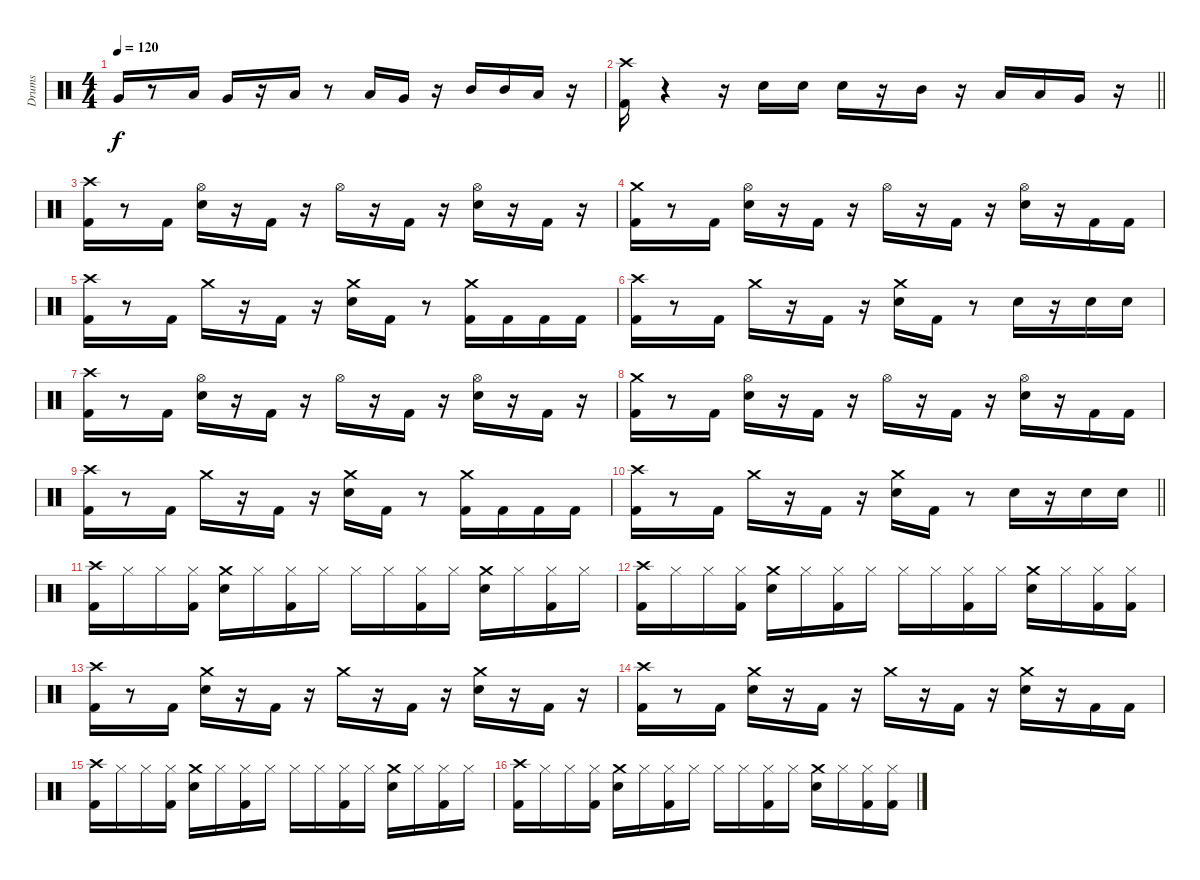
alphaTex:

\track ("Drums" "Drums") {instrument percussion}
\staff {score}
\articulation defaults
\ts (4 4)
\tempo 120
\clef neutral
\ks c "Very Low Tom (hit)".16{dy f}
r.8 "Low Tom (hit)".16 "Very Low Tom (hit)".16 r.16 "Low Tom (hit)".16 r.8 "Low Tom (hit)".16 "Very Low Tom (hit)".16 r.16 "Mid Tom (hit)".16 "Mid Tom (hit)".16 "Low Tom (hit)".16 r.16 |
\barLineRight lightlight
("Kick (hit) 2" "Crash high (hit)").16 r.4 r.16 "Snare (hit) 2".16 "Snare (hit) 2".16 "Snare (hit) 2".16 r.16 "Mid Tom (hit)".16 r.16 "Low Tom (hit)".16 "Low Tom (hit)".16 "Very Low Tom (hit)".16 r.16 |
\section ("" " ")
("Kick (hit) 2" "Crash high (hit)").16 r.8 "Kick (hit) 2".16 ("Snare (hit) 2" "Hi-Hat (open)").16 r.16 "Kick (hit) 2".16 r.16 "Hi-Hat (open)".16 r.16 "Kick (hit) 2".16 r.16 ("Snare (hit) 2" "Hi-Hat (open)").16 r.16 "Kick (hit) 2".16 r.16 |
("Kick (hit) 2" "Crash medium (hit)").16 r.8 "Kick (hit) 2".16 ("Snare (hit) 2" "Hi-Hat (open)").16 r.16 "Kick (hit) 2".16 r.16 "Hi-Hat (open)".16 r.16 "Kick (hit) 2".16 r.16 ("Snare (hit) 2" "Hi-Hat (open)").16 r.16 "Kick (hit) 2".16 "Kick (hit) 2".16 |
("Kick (hit) 2" "Crash high (hit)").16 r.8 "Kick (hit) 2".16 "Crash medium (hit)".16 r.16 "Kick (hit) 2".16 r.16 ("Snare (hit) 2" "Crash medium (hit)").16 "Kick (hit) 2".16 r.8 ("Kick (hit) 2" "Crash medium (hit)").16 "Kick (hit) 2".16 "Kick (hit) 2".16 "Kick (hit) 2".16 |
("Kick (hit) 2" "Crash high (hit)").16 r.8 "Kick (hit) 2".16 "Crash medium (hit)".16 r.16 "Kick (hit) 2".16 r.16 ("Snare (hit) 2" "Crash medium (hit)").16 "Kick (hit) 2".16 r.8 "Snare (hit) 2".16 r.16 "Snare (hit) 2".16 "Snare (hit) 2".16 |
("Kick (hit) 2" "Crash high (hit)").16 r.8 "Kick (hit) 2".16 ("Snare (hit) 2" "Hi-Hat (open)").16 r.16 "Kick (hit) 2".16 r.16 "Hi-Hat (open)".16 r.16 "Kick (hit) 2".16 r.16 ("Snare (hit) 2" "Hi-Hat (open)").16 r.16 "Kick (hit) 2".16 r.16 |
("Kick (hit) 2" "Crash medium (hit)").16 r.8 "Kick (hit) 2".16 ("Snare (hit) 2" "Hi-Hat (open)").16 r.16 "Kick (hit) 2".16 r.16 "Hi-Hat (open)".16 r.16 "Kick (hit) 2".16 r.16 ("Snare (hit) 2" "Hi-Hat (open)").16 r.16 "Kick (hit) 2".16 "Kick (hit) 2".16 |
("Kick (hit) 2" "Crash high (hit)").16 r.8 "Kick (hit) 2".16 "Crash medium (hit)".16 r.16 "Kick (hit) 2".16 r.16 ("Snare (hit) 2" "Crash medium (hit)").16 "Kick (hit) 2".16 r.8 ("Kick (hit) 2" "Crash medium (hit)").16 "Kick (hit) 2".16 "Kick (hit) 2".16 "Kick (hit) 2".16 |
\barLineRight lightlight
("Kick (hit) 2" "Crash high (hit)").16 r.8 "Kick (hit) 2".16 "Crash medium (hit)".16 r.16 "Kick (hit) 2".16 r.16 ("Snare (hit) 2" "Crash medium (hit)").16 "Kick (hit) 2".16 r.8 "Snare (hit) 2".16 r.16 "Snare (hit) 2".16 "Snare (hit) 2".16 |
\section ("" " ")
("Kick (hit) 2" "Crash high (hit)").16 "Hi-Hat (closed)".16 "Hi-Hat (closed)".16 ("Kick (hit) 2" "Hi-Hat (closed)").16 ("Snare (hit) 2" "Crash medium (hit)").16 "Hi-Hat (closed)".16 ("Kick (hit) 2" "Hi-Hat (closed)").16 "Hi-Hat (closed)".16 "Hi-Hat (closed)".16 "Hi-Hat (closed)".16 ("Kick (hit) 2" "Hi-Hat (closed)").16 "Hi-Hat (closed)".16 ("Snare (hit) 2" "Crash medium (hit)").16 "Hi-Hat (closed)".16 ("Kick (hit) 2" "Hi-Hat (closed)").16 "Hi-Hat (closed)".16 |
("Kick (hit) 2" "Crash high (hit)").16 "Hi-Hat (closed)".16 "Hi-Hat (closed)".16 ("Kick (hit) 2" "Hi-Hat (closed)").16 ("Snare (hit) 2" "Crash medium (hit)").16 "Hi-Hat (closed)".16 ("Kick (hit) 2" "Hi-Hat (closed)").16 "Hi-Hat (closed)".16 "Hi-Hat (closed)".16 "Hi-Hat (closed)".16 ("Kick (hit) 2" "Hi-Hat (closed)").16 "Hi-Hat (closed)".16 ("Snare (hit) 2" "Crash medium (hit)").16 "Hi-Hat (closed)".16 ("Kick (hit) 2" "Hi-Hat (closed)").16 ("Kick (hit) 2" "Hi-Hat (closed)").16 |
("Kick (hit) 2" "Crash high (hit)").16 r.8 "Kick (hit) 2".16 ("Snare (hit) 2" "Crash medium (hit)").16 r.16 "Kick (hit) 2".16 r.16 "Crash medium (hit)".16 r.16 "Kick (hit) 2".16 r.16 ("Snare (hit) 2" "Crash medium (hit)").16 r.16 "Kick (hit) 2".16 r.16 |
("Kick (hit) 2" "Crash high (hit)").16 r.8 "Kick (hit) 2".16 ("Snare (hit) 2" "Crash medium (hit)").16 r.16 "Kick (hit) 2".16 r.16 "Crash medium (hit)".16 r.16 "Kick (hit) 2".16 r.16 ("Snare (hit) 2" "Crash medium (hit)").16 r.16 "Kick (hit) 2".16 "Kick (hit) 2".16 |
("Kick (hit) 2" "Crash high (hit)").16 "Hi-Hat (closed)".16 "Hi-Hat (closed)".16 ("Kick (hit) 2" "Hi-Hat (closed)").16 ("Snare (hit) 2" "Crash medium (hit)").16 "Hi-Hat (closed)".16 ("Kick (hit) 2" "Hi-Hat (closed)").16 "Hi-Hat (closed)".16 "Hi-Hat (closed)".16 "Hi-Hat (closed)".16 ("Kick (hit) 2" "Hi-Hat (closed)").16 "Hi-Hat (closed)".16 ("Snare (hit) 2" "Crash medium (hit)").16 "Hi-Hat (closed)".16 ("Kick (hit) 2" "Hi-Hat (closed)").16 "Hi-Hat (closed)".16 |
("Kick (hit) 2" "Crash high (hit)").16 "Hi-Hat (closed)".16 "Hi-Hat (closed)".16 ("Kick (hit) 2" "Hi-Hat (closed)").16 ("Snare (hit) 2" "Crash medium (hit)").16 "Hi-Hat (closed)".16 ("Kick (hit) 2" "Hi-Hat (closed)").16 "Hi-Hat (closed)".16 "Hi-Hat (closed)".16 "Hi-Hat (closed)".16 ("Kick (hit) 2" "Hi-Hat (closed)").16 "Hi-Hat (closed)".16 ("Snare (hit) 2" "Crash medium (hit)").16 "Hi-Hat (closed)".16 ("Kick (hit) 2" "Hi-Hat (closed)").16 ("Kick (hit) 2" "Hi-Hat (closed)").16
